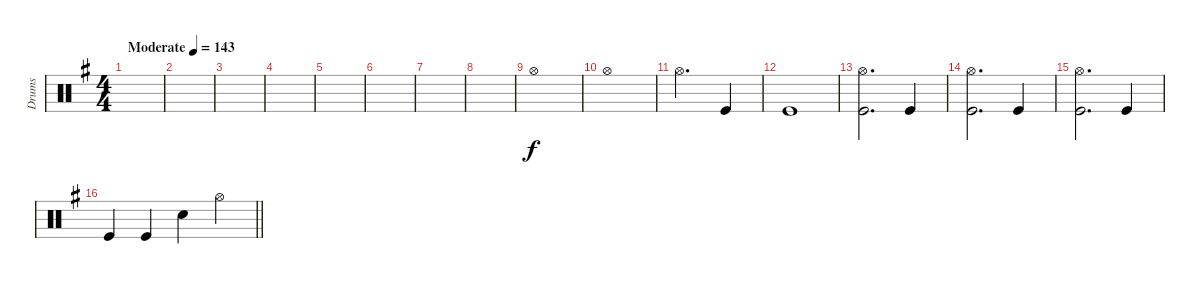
\track ("Drums" "Drums") {instrument percussion}
\staff {score}
\articulation defaults
\ts (4 4)
\tempo (143 "Moderate")
\clef neutral
\ks eminor
|
|
|
|
|
|
|
|
"Hi-Hat (open)".1 |
"Hi-Hat (open)".1 |
"Hi-Hat (open)".2{d} "Kick (hit)".4 |
"Kick (hit)".1 |
("Hi-Hat (open)" "Kick (hit)").2{d} "Kick (hit)".4 |
("Hi-Hat (open)" "Kick (hit)").2{d} "Kick (hit)".4 |
("Hi-Hat (open)" "Kick (hit)").2{d} "Kick (hit)".4 |
\barLineRight lightlight "Kick (hit)".4 "Kick (hit)".4 "Snare (hit) 2".4 "Hi-Hat (open)".4
